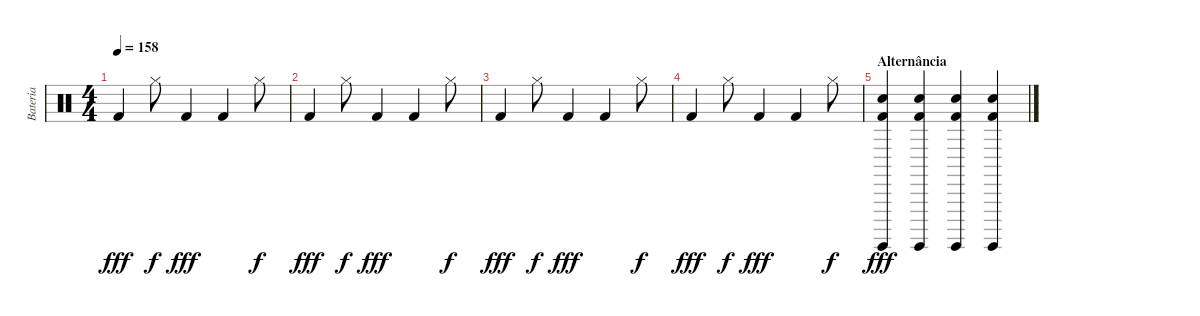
\track ("Bateria" "Bateria") {instrument percussion}
\staff {score}
\articulation defaults
\ts (4 4)
\tempo 158
\clef neutral
\ks c "Kick (hit) 2".4{dy fff} "Hi-Hat (closed)".8{dy f} "Kick (hit) 2".4{dy fff} "Kick (hit) 2".4 "Hi-Hat (closed)".8{dy f}
|
"Kick (hit) 2".4{dy fff} "Hi-Hat (closed)".8{dy f} "Kick (hit) 2".4{dy fff} "Kick (hit) 2".4 "Hi-Hat (closed)".8{dy f} |
"Kick (hit) 2".4{dy fff} "Hi-Hat (closed)".8{dy f} "Kick (hit) 2".4{dy fff} "Kick (hit) 2".4 "Hi-Hat (closed)".8{dy f} |
"Kick (hit) 2".4{dy fff} "Hi-Hat (closed)".8{dy f} "Kick (hit) 2".4{dy fff} "Kick (hit) 2".4 "Hi-Hat (closed)".8{dy f} |
\section ("" "Alternância")
("Snare (hit) 2" "Kick (hit) 2" "Surdo (hit)").4{dy fff} ("Snare (hit) 2" "Kick (hit) 2" "Surdo (hit)").4 ("Snare (hit) 2" "Kick (hit) 2" "Surdo (hit)").4 ("Snare (hit) 2" "Kick (hit) 2" "Surdo (hit)").4
